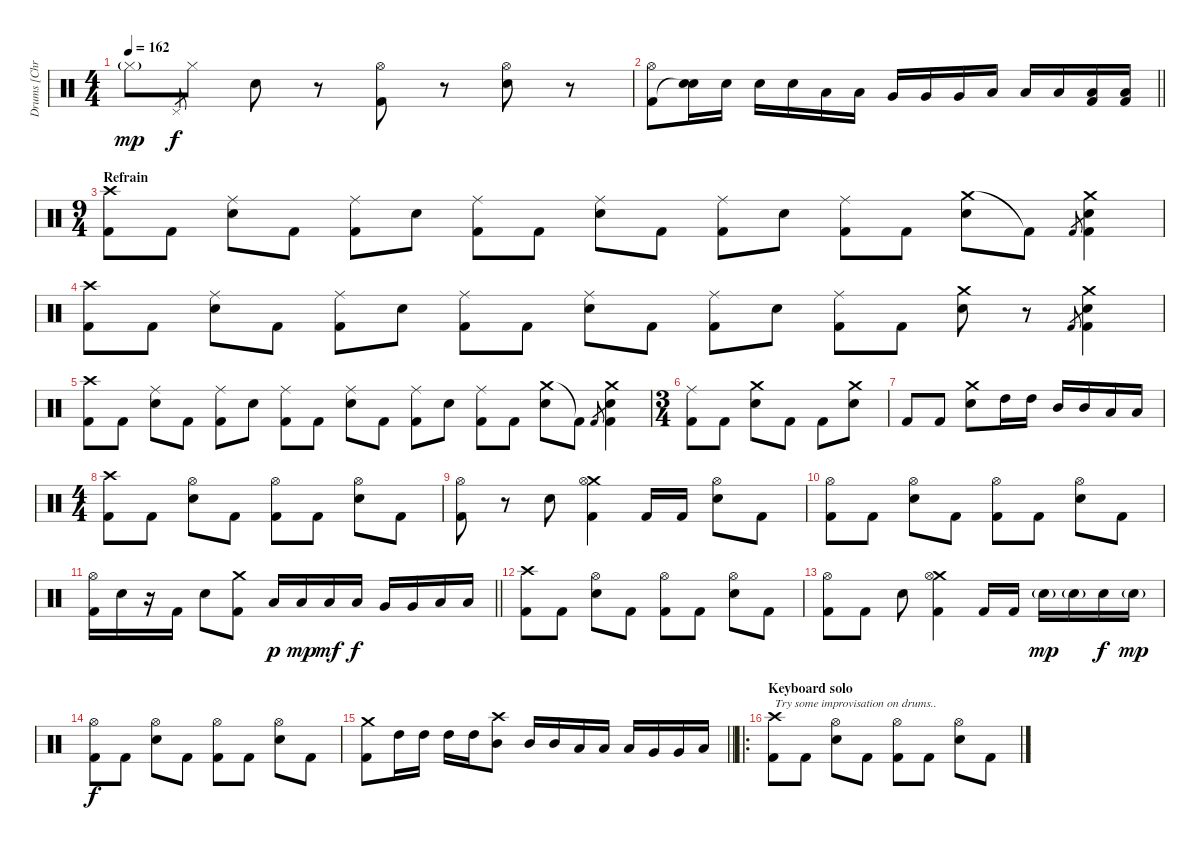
\track ("Drums [Chris Maitland]" "Drums [Chr") {instrument percussion}
\staff {score}
\articulation defaults
\ts (4 4)
\tempo 162
\clef neutral
\ks c "Hi-Hat (closed)"{g}.8{dy mp} "Pedal Hi-Hat (hit)".8{gr dy f} "Hi-Hat (closed)".8 "Electric Snare (hit)".8
r.8 ("Hi-Hat (open)" "Kick (hit) 2").8 r.8 ("Hi-Hat (open)" "Electric Snare (hit)").8 r.8 |
\barLineRight lightlight
("Hi-Hat (open)" "Kick (hit) 2").8 ("Electric Snare (hit)" "Snare (hit)"{t}).16 "Electric Snare (hit)".16 "Electric Snare (hit)".16 "Electric Snare (hit)".16 "Low Tom (hit)".16 "Low Tom (hit)".16 "Very Low Tom (hit)".16 "Very Low Tom (hit)".16 "Very Low Tom (hit)".16 "Low Floor Tom (hit)".16 "Low Floor Tom (hit)".16 "Low Floor Tom (hit)".16 ("Low Floor Tom (hit)" "Kick (hit) 2").16 ("Low Floor Tom (hit)" "Kick (hit) 2").16 |
\ts (9 4)
\section ("" "Refrain")
("Crash high (hit)" "Kick (hit) 2").8 "Kick (hit) 2".8 ("Ride (middle)" "Electric Snare (hit)").8 "Kick (hit) 2".8 ("Ride (middle)" "Kick (hit) 2").8 "Electric Snare (hit)".8 ("Ride (middle)" "Kick (hit) 2").8 "Kick (hit) 2".8 ("Ride (middle)" "Electric Snare (hit)").8 "Kick (hit) 2".8 ("Ride (middle)" "Kick (hit) 2").8 "Electric Snare (hit)".8 ("Ride (middle)" "Kick (hit) 2").8 "Kick (hit) 2".8 ("Crash medium (hit)" "Electric Snare (hit)").8 "Kick (hit) 2"{t}.8 "Kick (hit) 2".8{gr} ("Crash medium (hit)" "Electric Snare (hit)" "Kick (hit) 2").4 |
("Crash high (hit)" "Kick (hit) 2").8 "Kick (hit) 2".8 ("Ride (middle)" "Electric Snare (hit)").8 "Kick (hit) 2".8 ("Ride (middle)" "Kick (hit) 2").8 "Electric Snare (hit)".8 ("Ride (middle)" "Kick (hit) 2").8 "Kick (hit) 2".8 ("Ride (middle)" "Electric Snare (hit)").8 "Kick (hit) 2".8 ("Ride (middle)" "Kick (hit) 2").8 "Electric Snare (hit)".8 ("Ride (middle)" "Kick (hit) 2").8 "Kick (hit) 2".8 ("Crash medium (hit)" "Electric Snare (hit)").8 r.8 "Kick (hit) 2".8{gr} ("Crash medium (hit)" "Electric Snare (hit)" "Kick (hit) 2").4 |
("Crash high (hit)" "Kick (hit) 2").8 "Kick (hit) 2".8 ("Ride (middle)" "Electric Snare (hit)").8 "Kick (hit) 2".8 ("Ride (middle)" "Kick (hit) 2").8 "Electric Snare (hit)".8 ("Ride (middle)" "Kick (hit) 2").8 "Kick (hit) 2".8 ("Ride (middle)" "Electric Snare (hit)").8 "Kick (hit) 2".8 ("Ride (middle)" "Kick (hit) 2").8 "Electric Snare (hit)".8 ("Ride (middle)" "Kick (hit) 2").8 "Kick (hit) 2".8 ("Crash medium (hit)" "Electric Snare (hit)").8 "Kick (hit) 2"{t}.8 "Kick (hit) 2".8{gr} ("Crash medium (hit)" "Electric Snare (hit)" "Kick (hit) 2").4 |
\ts (3 4)
("Ride (middle)" "Kick (hit) 2").8 "Kick (hit) 2".8 ("Crash medium (hit)" "Electric Snare (hit)").8 "Kick (hit) 2".8 "Kick (hit) 2".8 ("Crash medium (hit)" "Electric Snare (hit)").8 |
"Kick (hit) 2".8 "Kick (hit) 2".8 ("Crash medium (hit)" "Electric Snare (hit)").8 "High Tom (hit)".16 "High Tom (hit)".16 "Mid Tom (hit)".16 "Mid Tom (hit)".16 "Low Tom (hit)".16 "Low Tom (hit)".16 |
\ts (4 4)
("Crash high (hit)" "Kick (hit) 2").8 "Kick (hit) 2".8 ("Hi-Hat (open)" "Electric Snare (hit)").8 "Kick (hit) 2".8 ("Hi-Hat (open)" "Kick (hit) 2").8 "Kick (hit) 2".8 ("Hi-Hat (open)" "Electric Snare (hit)").8 "Kick (hit) 2".8 |
("Hi-Hat (open)" "Kick (hit) 2").8 r.8 "Electric Snare (hit)".8 ("Crash medium (hit)" "Hi-Hat (open)" "Kick (hit) 2").4 "Kick (hit) 2".16 "Kick (hit) 2".16 ("Hi-Hat (open)" "Electric Snare (hit)").8 "Kick (hit) 2".8 |
("Hi-Hat (open)" "Kick (hit) 2").8 "Kick (hit) 2".8 ("Hi-Hat (open)" "Electric Snare (hit)").8 "Kick (hit) 2".8 ("Hi-Hat (open)" "Kick (hit) 2").8 "Kick (hit) 2".8 ("Hi-Hat (open)" "Electric Snare (hit)").8 "Kick (hit) 2".8 |
\barLineRight lightlight
("Hi-Hat (open)" "Kick (hit) 2").16 "Electric Snare (hit)".16 r.16 "Kick (hit) 2".16 "Electric Snare (hit)".8 ("Crash medium (hit)" "Kick (hit) 2").8 "Low Tom (hit)".16{dy p} "Low Tom (hit)".16{dy mp} "Low Tom (hit)".16{dy mf} "Low Tom (hit)".16{dy f} "Very Low Tom (hit)".16 "Very Low Tom (hit)".16 "Low Floor Tom (hit)".16 "Low Floor Tom (hit)".16 |
("Crash high (hit)" "Kick (hit) 2").8 "Kick (hit) 2".8 ("Hi-Hat (open)" "Electric Snare (hit)").8 "Kick (hit) 2".8 ("Hi-Hat (open)" "Kick (hit) 2").8 "Kick (hit) 2".8 ("Hi-Hat (open)" "Electric Snare (hit)").8 "Kick (hit) 2".8 |
("Hi-Hat (open)" "Kick (hit) 2").8 "Kick (hit) 2".8 "Snare (hit) 2".8 ("Crash medium (hit)" "Hi-Hat (open)" "Kick (hit) 2").4 "Kick (hit) 2".16 "Kick (hit) 2".16 "Electric Snare (hit)"{g}.16{dy mp} "Electric Snare (hit)"{g}.16 "Electric Snare (hit)".16{dy f} "Electric Snare (hit)"{g}.16{dy mp} |
("Hi-Hat (open)" "Kick (hit) 2").8{dy f} "Kick (hit) 2".8 ("Hi-Hat (open)" "Electric Snare (hit)").8 "Kick (hit) 2".8 ("Hi-Hat (open)" "Kick (hit) 2").8 "Kick (hit) 2".8 ("Hi-Hat (open)" "Electric Snare (hit)").8 "Kick (hit) 2".8 |
\barLineRight lightlight
("Crash medium (hit)" "Kick (hit) 2").8 "High Tom (hit)".16 "High Tom (hit)".16 "High Tom (hit)".16 "High Tom (hit)".16 ("Crash high (hit)" "Mid Tom (hit)").8 "Mid Tom (hit)".16 "Mid Tom (hit)".16 "Low Tom (hit)".16 "Low Tom (hit)".16 "Low Tom (hit)".16 "Very Low Tom (hit)".16 "Very Low Tom (hit)".16 "Low Floor Tom (hit)".16 |
\ro
\section ("" "Keyboard solo")
("Crash high (hit)" "Kick (hit) 2").8{txt "Try some improvisation on drums.."} "Kick (hit) 2".8 ("Hi-Hat (open)" "Electric Snare (hit)").8 "Kick (hit) 2".8 ("Hi-Hat (open)" "Kick (hit) 2").8 "Kick (hit) 2".8 ("Hi-Hat (open)" "Electric Snare (hit)").8 "Kick (hit) 2".8
